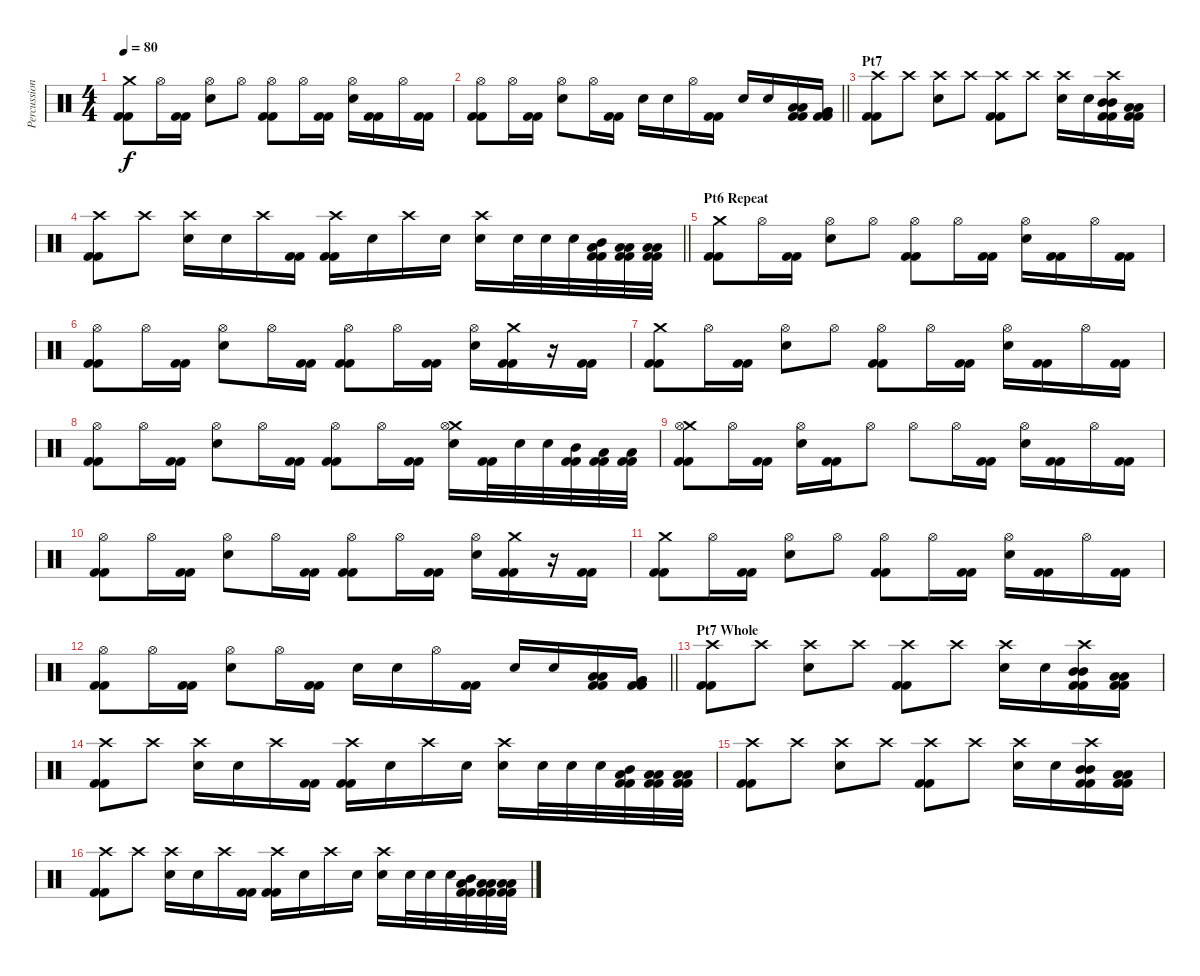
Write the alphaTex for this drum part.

\track ("Percussion" "Percussion") {instrument percussion}
\staff {score}
\articulation defaults
\ts (4 4)
\tempo 80
\clef neutral
\ks c
("Crash medium (hit)" "Kick (hit) 2" "Kick (hit) 2").8{dy f} "Hi-Hat (open)".16 ("Kick (hit) 2" "Kick (hit) 2").16 ("Hi-Hat (open)" "Electric Snare (hit)").8 "Hi-Hat (open)".8 ("Hi-Hat (open)" "Kick (hit) 2" "Kick (hit) 2").8 "Hi-Hat (open)".16 ("Kick (hit) 2" "Kick (hit) 2").16 ("Hi-Hat (open)" "Electric Snare (hit)").16 ("Kick (hit) 2" "Kick (hit) 2").16 "Hi-Hat (open)".16 ("Kick (hit) 2" "Kick (hit) 2").16 |
\barLineRight lightlight
("Hi-Hat (open)" "Kick (hit) 2" "Kick (hit) 2").8 "Hi-Hat (open)".16 ("Kick (hit) 2" "Kick (hit) 2").16 ("Hi-Hat (open)" "Electric Snare (hit)").8 "Hi-Hat (open)".16 ("Kick (hit) 2" "Kick (hit) 2").16 "Electric Snare (hit)".16 "Electric Snare (hit)".16 "Hi-Hat (open)".16 ("Kick (hit) 2" "Kick (hit) 2").16 "Electric Snare (hit)".16 "Electric Snare (hit)".16 ("Low Tom (hit)" "Low Tom (hit)" "Kick (hit) 2" "Kick (hit) 2").16 ("Very Low Tom (hit)" "Very Low Tom (hit)" "Kick (hit) 2" "Kick (hit) 2").16 |
\section ("" "Pt7")
("Crash high (hit)" "Kick (hit) 2" "Kick (hit) 2").8 "Crash high (hit)".8 ("Crash high (hit)" "Electric Snare (hit)").8 "Crash high (hit)".8 ("Crash high (hit)" "Kick (hit) 2" "Kick (hit) 2").8 "Crash high (hit)".8 ("Crash high (hit)" "Electric Snare (hit)").16 "Electric Snare (hit)".16 ("Crash high (hit)" "Mid Tom (hit)" "Mid Tom (hit)" "Kick (hit) 2" "Kick (hit) 2").16 ("Low Tom (hit)" "Low Tom (hit)" "Kick (hit) 2" "Kick (hit) 2").16 |
\barLineRight lightlight
("Crash high (hit)" "Kick (hit) 2" "Kick (hit) 2").8 "Crash high (hit)".8 ("Crash high (hit)" "Electric Snare (hit)").16 "Electric Snare (hit)".16 "Crash high (hit)".16 ("Kick (hit) 2" "Kick (hit) 2").16 ("Crash high (hit)" "Kick (hit) 2" "Kick (hit) 2").16 "Electric Snare (hit)".16 "Crash high (hit)".16 "Electric Snare (hit)".16 ("Crash high (hit)" "Electric Snare (hit)").16 "Electric Snare (hit)".32 "Electric Snare (hit)".32 "Electric Snare (hit)".32 ("Mid Tom (hit)" "Low Tom (hit)" "Kick (hit) 2" "Kick (hit) 2").32 ("Low Tom (hit)" "Low Tom (hit)" "Kick (hit) 2" "Kick (hit) 2").32 ("Low Tom (hit)" "Low Tom (hit)" "Kick (hit) 2" "Kick (hit) 2").32 |
\section ("" "Pt6 Repeat")
("Crash medium (hit)" "Kick (hit) 2" "Kick (hit) 2").8 "Hi-Hat (open)".16 ("Kick (hit) 2" "Kick (hit) 2").16 ("Hi-Hat (open)" "Electric Snare (hit)").8 "Hi-Hat (open)".8 ("Hi-Hat (open)" "Kick (hit) 2" "Kick (hit) 2").8 "Hi-Hat (open)".16 ("Kick (hit) 2" "Kick (hit) 2").16 ("Hi-Hat (open)" "Electric Snare (hit)").16 ("Kick (hit) 2" "Kick (hit) 2").16 "Hi-Hat (open)".16 ("Kick (hit) 2" "Kick (hit) 2").16 |
("Hi-Hat (open)" "Kick (hit) 2" "Kick (hit) 2").8 "Hi-Hat (open)".16 ("Kick (hit) 2" "Kick (hit) 2").16 ("Hi-Hat (open)" "Electric Snare (hit)").8 "Hi-Hat (open)".16 ("Kick (hit) 2" "Kick (hit) 2").16 ("Hi-Hat (open)" "Kick (hit) 2" "Kick (hit) 2").8 "Hi-Hat (open)".16 ("Kick (hit) 2" "Kick (hit) 2").16 ("Hi-Hat (open)" "Electric Snare (hit)").16 ("Crash medium (hit)" "Kick (hit) 2" "Kick (hit) 2").16 r.16 ("Kick (hit) 2" "Kick (hit) 2").16 |
("Crash medium (hit)" "Kick (hit) 2" "Kick (hit) 2").8 "Hi-Hat (open)".16 ("Kick (hit) 2" "Kick (hit) 2").16 ("Hi-Hat (open)" "Electric Snare (hit)").8 "Hi-Hat (open)".8 ("Hi-Hat (open)" "Kick (hit) 2" "Kick (hit) 2").8 "Hi-Hat (open)".16 ("Kick (hit) 2" "Kick (hit) 2").16 ("Hi-Hat (open)" "Electric Snare (hit)").16 ("Kick (hit) 2" "Kick (hit) 2").16 "Hi-Hat (open)".16 ("Kick (hit) 2" "Kick (hit) 2").16 |
("Hi-Hat (open)" "Kick (hit) 2" "Kick (hit) 2").8 "Hi-Hat (open)".16 ("Kick (hit) 2" "Kick (hit) 2").16 ("Hi-Hat (open)" "Electric Snare (hit)").8 "Hi-Hat (open)".16 ("Kick (hit) 2" "Kick (hit) 2").16 ("Hi-Hat (open)" "Kick (hit) 2" "Kick (hit) 2").8 "Hi-Hat (open)".16 ("Kick (hit) 2" "Kick (hit) 2").16 ("Crash medium (hit)" "Hi-Hat (open)" "Electric Snare (hit)").16 ("Kick (hit) 2" "Kick (hit) 2").32 "Electric Snare (hit)".32 "Electric Snare (hit)".32 ("Mid Tom (hit)" "Kick (hit) 2" "Kick (hit) 2").32 ("Low Tom (hit)" "Kick (hit) 2" "Kick (hit) 2").32 ("Low Tom (hit)" "Kick (hit) 2" "Kick (hit) 2").32 |
("Crash medium (hit)" "Hi-Hat (open)" "Kick (hit) 2" "Kick (hit) 2").8 "Hi-Hat (open)".16 ("Kick (hit) 2" "Kick (hit) 2").16 ("Hi-Hat (open)" "Electric Snare (hit)").16 ("Kick (hit) 2" "Kick (hit) 2").16 "Hi-Hat (open)".8 "Hi-Hat (open)".8 "Hi-Hat (open)".16 ("Kick (hit) 2" "Kick (hit) 2").16 ("Hi-Hat (open)" "Electric Snare (hit)").16 ("Kick (hit) 2" "Kick (hit) 2").16 "Hi-Hat (open)".16 ("Kick (hit) 2" "Kick (hit) 2").16 |
("Hi-Hat (open)" "Kick (hit) 2" "Kick (hit) 2").8 "Hi-Hat (open)".16 ("Kick (hit) 2" "Kick (hit) 2").16 ("Hi-Hat (open)" "Electric Snare (hit)").8 "Hi-Hat (open)".16 ("Kick (hit) 2" "Kick (hit) 2").16 ("Hi-Hat (open)" "Kick (hit) 2" "Kick (hit) 2").8 "Hi-Hat (open)".16 ("Kick (hit) 2" "Kick (hit) 2").16 ("Hi-Hat (open)" "Electric Snare (hit)").16 ("Crash medium (hit)" "Kick (hit) 2" "Kick (hit) 2").16 r.16 ("Kick (hit) 2" "Kick (hit) 2").16 |
("Crash medium (hit)" "Kick (hit) 2" "Kick (hit) 2").8 "Hi-Hat (open)".16 ("Kick (hit) 2" "Kick (hit) 2").16 ("Hi-Hat (open)" "Electric Snare (hit)").8 "Hi-Hat (open)".8 ("Hi-Hat (open)" "Kick (hit) 2" "Kick (hit) 2").8 "Hi-Hat (open)".16 ("Kick (hit) 2" "Kick (hit) 2").16 ("Hi-Hat (open)" "Electric Snare (hit)").16 ("Kick (hit) 2" "Kick (hit) 2").16 "Hi-Hat (open)".16 ("Kick (hit) 2" "Kick (hit) 2").16 |
\barLineRight lightlight
("Hi-Hat (open)" "Kick (hit) 2" "Kick (hit) 2").8 "Hi-Hat (open)".16 ("Kick (hit) 2" "Kick (hit) 2").16 ("Hi-Hat (open)" "Electric Snare (hit)").8 "Hi-Hat (open)".16 ("Kick (hit) 2" "Kick (hit) 2").16 "Electric Snare (hit)".16 "Electric Snare (hit)".16 "Hi-Hat (open)".16 ("Kick (hit) 2" "Kick (hit) 2").16 "Electric Snare (hit)".16 "Electric Snare (hit)".16 ("Low Tom (hit)" "Low Tom (hit)" "Kick (hit) 2" "Kick (hit) 2").16 ("Very Low Tom (hit)" "Very Low Tom (hit)" "Kick (hit) 2" "Kick (hit) 2").16 |
\section ("" "Pt7 Whole")
("Crash high (hit)" "Kick (hit) 2" "Kick (hit) 2").8 "Crash high (hit)".8 ("Crash high (hit)" "Electric Snare (hit)").8 "Crash high (hit)".8 ("Crash high (hit)" "Kick (hit) 2" "Kick (hit) 2").8 "Crash high (hit)".8 ("Crash high (hit)" "Electric Snare (hit)").16 "Electric Snare (hit)".16 ("Crash high (hit)" "Mid Tom (hit)" "Mid Tom (hit)" "Kick (hit) 2" "Kick (hit) 2").16 ("Low Tom (hit)" "Low Tom (hit)" "Kick (hit) 2" "Kick (hit) 2").16 |
("Crash high (hit)" "Kick (hit) 2" "Kick (hit) 2").8 "Crash high (hit)".8 ("Crash high (hit)" "Electric Snare (hit)").16 "Electric Snare (hit)".16 "Crash high (hit)".16 ("Kick (hit) 2" "Kick (hit) 2").16 ("Crash high (hit)" "Kick (hit) 2" "Kick (hit) 2").16 "Electric Snare (hit)".16 "Crash high (hit)".16 "Electric Snare (hit)".16 ("Crash high (hit)" "Electric Snare (hit)").16 "Electric Snare (hit)".32 "Electric Snare (hit)".32 "Electric Snare (hit)".32 ("Mid Tom (hit)" "Low Tom (hit)" "Kick (hit) 2" "Kick (hit) 2").32 ("Low Tom (hit)" "Low Tom (hit)" "Kick (hit) 2" "Kick (hit) 2").32 ("Low Tom (hit)" "Low Tom (hit)" "Kick (hit) 2" "Kick (hit) 2").32 |
("Crash high (hit)" "Kick (hit) 2" "Kick (hit) 2").8 "Crash high (hit)".8 ("Crash high (hit)" "Electric Snare (hit)").8 "Crash high (hit)".8 ("Crash high (hit)" "Kick (hit) 2" "Kick (hit) 2").8 "Crash high (hit)".8 ("Crash high (hit)" "Electric Snare (hit)").16 "Electric Snare (hit)".16 ("Crash high (hit)" "Mid Tom (hit)" "Mid Tom (hit)" "Kick (hit) 2" "Kick (hit) 2").16 ("Low Tom (hit)" "Low Tom (hit)" "Kick (hit) 2" "Kick (hit) 2").16 |
("Crash high (hit)" "Kick (hit) 2" "Kick (hit) 2").8 "Crash high (hit)".8 ("Crash high (hit)" "Electric Snare (hit)").16 "Electric Snare (hit)".16 "Crash high (hit)".16 ("Kick (hit) 2" "Kick (hit) 2").16 ("Crash high (hit)" "Kick (hit) 2" "Kick (hit) 2").16 "Electric Snare (hit)".16 "Crash high (hit)".16 "Electric Snare (hit)".16 ("Crash high (hit)" "Electric Snare (hit)").16 "Electric Snare (hit)".32 "Electric Snare (hit)".32 "Electric Snare (hit)".32 ("Mid Tom (hit)" "Low Tom (hit)" "Kick (hit) 2" "Kick (hit) 2").32 ("Low Tom (hit)" "Low Tom (hit)" "Kick (hit) 2" "Kick (hit) 2").32 ("Low Tom (hit)" "Low Tom (hit)" "Kick (hit) 2" "Kick (hit) 2").32
